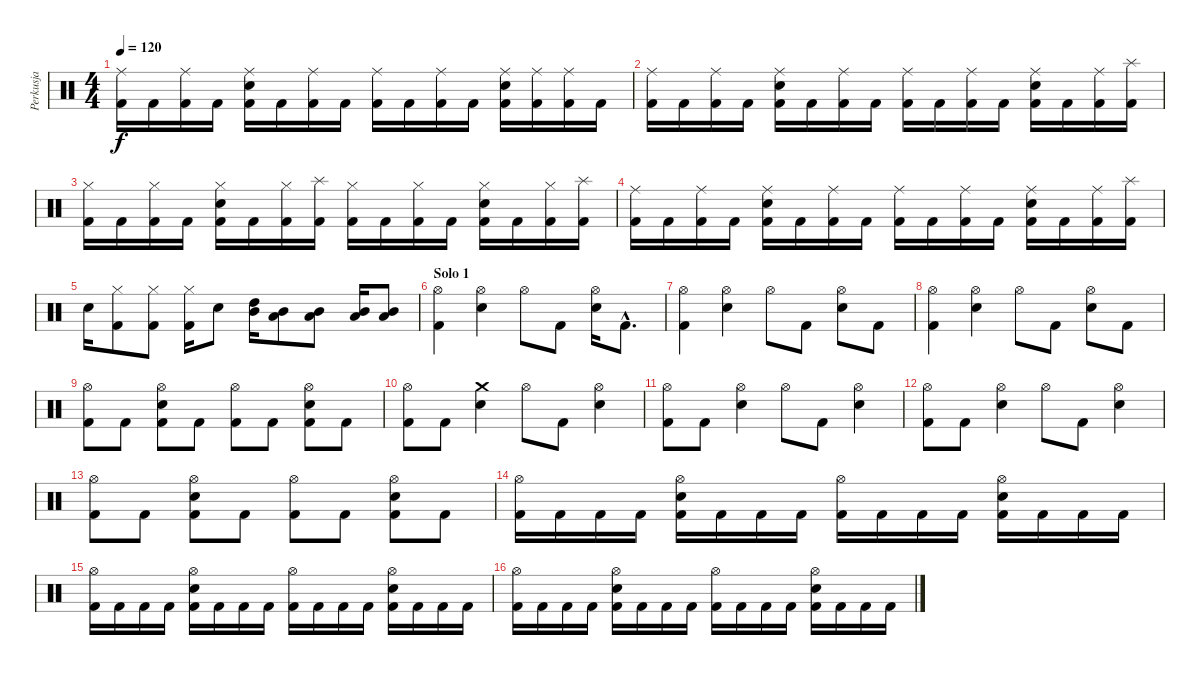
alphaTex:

\track ("Perkusja" "Perkusja") {instrument percussion}
\staff {score}
\articulation defaults
\ts (4 4)
\tempo 120
\clef neutral
\ks c
("Ride (middle)" "Kick (hit) 2").16{dy f} "Kick (hit) 2".16 ("Ride (middle)" "Kick (hit) 2").16 "Kick (hit) 2".16 ("Ride (middle)" "Snare (hit) 2" "Kick (hit) 2").16 "Kick (hit) 2".16 ("Ride (middle)" "Kick (hit) 2").16 "Kick (hit) 2".16 ("Ride (middle)" "Kick (hit) 2").16 "Kick (hit) 2".16 ("Ride (middle)" "Kick (hit) 2").16 "Kick (hit) 2".16 ("Ride (middle)" "Snare (hit) 2" "Kick (hit) 2").16 ("Ride (middle)" "Kick (hit) 2").16 ("Ride (middle)" "Kick (hit) 2").16 "Kick (hit) 2".16 |
("Ride (middle)" "Kick (hit) 2").16 "Kick (hit) 2".16 ("Ride (middle)" "Kick (hit) 2").16 "Kick (hit) 2".16 ("Ride (middle)" "Snare (hit) 2" "Kick (hit) 2").16 "Kick (hit) 2".16 ("Ride (middle)" "Kick (hit) 2").16 "Kick (hit) 2".16 ("Ride (middle)" "Kick (hit) 2").16 "Kick (hit) 2".16 ("Ride (middle)" "Kick (hit) 2").16 "Kick (hit) 2".16 ("Ride (middle)" "Snare (hit) 2" "Kick (hit) 2").16 "Kick (hit) 2".16 ("Ride (middle)" "Kick (hit) 2").16 ("Splash (hit)" "Kick (hit) 2").16 |
("Hi-Hat (closed)" "Kick (hit) 2").16 "Kick (hit) 2".16 ("Hi-Hat (closed)" "Kick (hit) 2").16 "Kick (hit) 2".16 ("Hi-Hat (closed)" "Snare (hit) 2" "Kick (hit) 2").16 "Kick (hit) 2".16 ("Hi-Hat (closed)" "Kick (hit) 2").16 ("Splash (hit)" "Kick (hit) 2").16 ("Hi-Hat (closed)" "Kick (hit) 2").16 "Kick (hit) 2".16 ("Hi-Hat (closed)" "Kick (hit) 2").16 "Kick (hit) 2".16 ("Hi-Hat (closed)" "Snare (hit) 2" "Kick (hit) 2").16 "Kick (hit) 2".16 ("Hi-Hat (closed)" "Kick (hit) 2").16 ("Splash (hit)" "Kick (hit) 2").16 |
("Ride (middle)" "Kick (hit) 2").16 "Kick (hit) 2".16 ("Ride (middle)" "Kick (hit) 2").16 "Kick (hit) 2".16 ("Ride (middle)" "Snare (hit) 2" "Kick (hit) 2").16 "Kick (hit) 2".16 ("Ride (middle)" "Kick (hit) 2").16 "Kick (hit) 2".16 ("Ride (middle)" "Kick (hit) 2").16 "Kick (hit) 2".16 ("Ride (middle)" "Kick (hit) 2").16 "Kick (hit) 2".16 ("Ride (middle)" "Snare (hit) 2" "Kick (hit) 2").16 "Kick (hit) 2".16 ("Ride (middle)" "Kick (hit) 2").16 ("Splash (hit)" "Kick (hit) 2").16 |
"Snare (hit) 2".16 ("Hi-Hat (closed)" "Kick (hit) 2").8 ("Hi-Hat (closed)" "Kick (hit) 2").8 ("Hi-Hat (closed)" "Kick (hit) 2").16 "Snare (hit) 2".8 ("High Tom (hit)" "Mid Tom (hit)").16 ("Low Tom (hit)" "Mid Tom (hit)").8 ("Low Tom (hit)" "Mid Tom (hit)").8 ("Low Tom (hit)" "Mid Tom (hit)").16 ("Low Tom (hit)" "Mid Tom (hit)").8 |
\section ("" "Solo 1")
("Hi-Hat (open)" "Kick (hit) 2").4 ("Hi-Hat (open)" "Snare (hit) 2").4 "Hi-Hat (open)".8 "Kick (hit) 2".8 ("Hi-Hat (open)" "Snare (hit) 2").16 "Kick (hit) 2"{hac}.8{d} |
("Hi-Hat (open)" "Kick (hit) 2").4 ("Hi-Hat (open)" "Snare (hit) 2").4 "Hi-Hat (open)".8 "Kick (hit) 2".8 ("Hi-Hat (open)" "Snare (hit) 2").8 "Kick (hit) 2".8 |
("Hi-Hat (open)" "Kick (hit) 2").4 ("Hi-Hat (open)" "Snare (hit) 2").4 "Hi-Hat (open)".8 "Kick (hit) 2".8 ("Hi-Hat (open)" "Snare (hit) 2").8 "Kick (hit) 2".8 |
("Hi-Hat (open)" "Kick (hit) 2").8 "Kick (hit) 2".8 ("Hi-Hat (open)" "Snare (hit) 2" "Kick (hit) 2").8 "Kick (hit) 2".8 ("Hi-Hat (open)" "Kick (hit) 2").8 "Kick (hit) 2".8 ("Hi-Hat (open)" "Snare (hit) 2" "Kick (hit) 2").8 "Kick (hit) 2".8 |
("Hi-Hat (open)" "Kick (hit) 2").8 "Kick (hit) 2".8 ("Crash medium (hit)" "Snare (hit) 2").4 "Hi-Hat (open)".8 "Kick (hit) 2".8 ("Hi-Hat (open)" "Snare (hit) 2").4 |
("Hi-Hat (open)" "Kick (hit) 2").8 "Kick (hit) 2".8 ("Hi-Hat (open)" "Snare (hit) 2").4 "Hi-Hat (open)".8 "Kick (hit) 2".8 ("Hi-Hat (open)" "Snare (hit) 2").4 |
("Hi-Hat (open)" "Kick (hit) 2").8 "Kick (hit) 2".8 ("Hi-Hat (open)" "Snare (hit) 2").4 "Hi-Hat (open)".8 "Kick (hit) 2".8 ("Hi-Hat (open)" "Snare (hit) 2").4 |
("Hi-Hat (open)" "Kick (hit) 2").8 "Kick (hit) 2".8 ("Hi-Hat (open)" "Snare (hit) 2" "Kick (hit) 2").8 "Kick (hit) 2".8 ("Hi-Hat (open)" "Kick (hit) 2").8 "Kick (hit) 2".8 ("Hi-Hat (open)" "Snare (hit) 2" "Kick (hit) 2").8 "Kick (hit) 2".8 |
("Hi-Hat (open)" "Kick (hit) 2").16 "Kick (hit) 2".16 "Kick (hit) 2".16 "Kick (hit) 2".16 ("Hi-Hat (open)" "Snare (hit) 2" "Kick (hit) 2").16 "Kick (hit) 2".16 "Kick (hit) 2".16 "Kick (hit) 2".16 ("Hi-Hat (open)" "Kick (hit) 2").16 "Kick (hit) 2".16 "Kick (hit) 2".16 "Kick (hit) 2".16 ("Hi-Hat (open)" "Snare (hit) 2" "Kick (hit) 2").16 "Kick (hit) 2".16 "Kick (hit) 2".16 "Kick (hit) 2".16 |
("Hi-Hat (open)" "Kick (hit) 2").16 "Kick (hit) 2".16 "Kick (hit) 2".16 "Kick (hit) 2".16 ("Hi-Hat (open)" "Snare (hit) 2" "Kick (hit) 2").16 "Kick (hit) 2".16 "Kick (hit) 2".16 "Kick (hit) 2".16 ("Hi-Hat (open)" "Kick (hit) 2").16 "Kick (hit) 2".16 "Kick (hit) 2".16 "Kick (hit) 2".16 ("Hi-Hat (open)" "Snare (hit) 2" "Kick (hit) 2").16 "Kick (hit) 2".16 "Kick (hit) 2".16 "Kick (hit) 2".16 |
("Hi-Hat (open)" "Kick (hit) 2").16 "Kick (hit) 2".16 "Kick (hit) 2".16 "Kick (hit) 2".16 ("Hi-Hat (open)" "Snare (hit) 2" "Kick (hit) 2").16 "Kick (hit) 2".16 "Kick (hit) 2".16 "Kick (hit) 2".16 ("Hi-Hat (open)" "Kick (hit) 2").16 "Kick (hit) 2".16 "Kick (hit) 2".16 "Kick (hit) 2".16 ("Hi-Hat (open)" "Snare (hit) 2" "Kick (hit) 2").16 "Kick (hit) 2".16 "Kick (hit) 2".16 "Kick (hit) 2".16
